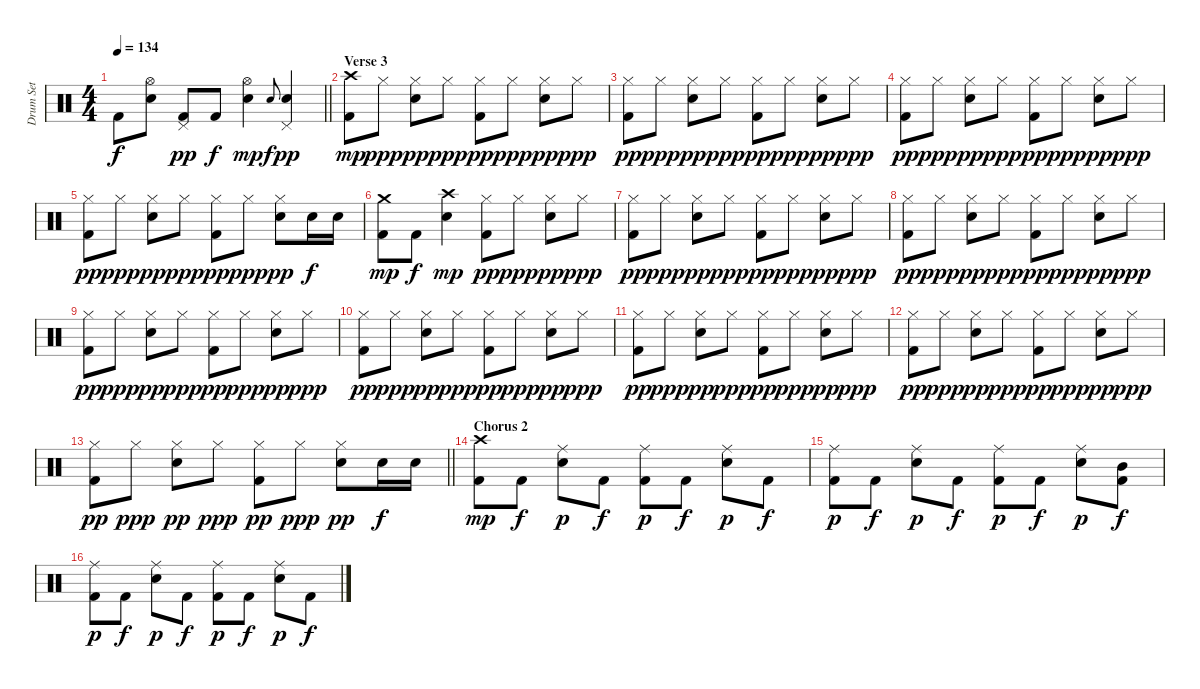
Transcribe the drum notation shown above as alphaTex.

\track ("Drum Set" "Drum Set") {instrument percussion}
\staff {score}
\articulation defaults
\ts (4 4)
\tempo 134
\clef neutral
\barLineRight lightlight
\ks c "Kick (hit) 2".8{dy f}
("Electric Snare (hit)" "Hi-Hat (open)").8 ("Kick (hit) 2" "Pedal Hi-Hat (hit)").8{dy pp} "Kick (hit) 2".8{dy f} ("Electric Snare (hit)" "Hi-Hat (open)").4{dy mp} "Electric Snare (hit)".8{gr onbeat dy f} ("Electric Snare (hit)" "Pedal Hi-Hat (hit)").4{dy pp} |
\section ("" "Verse 3")
("Crash high (hit)" "Kick (hit) 2").8{dy mp} "Hi-Hat (closed)".8{dy ppp} ("Hi-Hat (closed)" "Electric Snare (hit)").8{dy pp} "Hi-Hat (closed)".8{dy ppp} ("Hi-Hat (closed)" "Kick (hit) 2").8{dy pp} "Hi-Hat (closed)".8{dy ppp} ("Hi-Hat (closed)" "Electric Snare (hit)").8{dy pp} "Hi-Hat (closed)".8{dy ppp} |
("Hi-Hat (closed)" "Kick (hit) 2").8{dy pp} "Hi-Hat (closed)".8{dy ppp} ("Hi-Hat (closed)" "Electric Snare (hit)").8{dy pp} "Hi-Hat (closed)".8{dy ppp} ("Hi-Hat (closed)" "Kick (hit) 2").8{dy pp} "Hi-Hat (closed)".8{dy ppp} ("Hi-Hat (closed)" "Electric Snare (hit)").8{dy pp} "Hi-Hat (closed)".8{dy ppp} |
("Hi-Hat (closed)" "Kick (hit) 2").8{dy pp} "Hi-Hat (closed)".8{dy ppp} ("Hi-Hat (closed)" "Electric Snare (hit)").8{dy pp} "Hi-Hat (closed)".8{dy ppp} ("Hi-Hat (closed)" "Kick (hit) 2").8{dy pp} "Hi-Hat (closed)".8{dy ppp} ("Hi-Hat (closed)" "Electric Snare (hit)").8{dy pp} "Hi-Hat (closed)".8{dy ppp} |
("Hi-Hat (closed)" "Kick (hit) 2").8{dy pp} "Hi-Hat (closed)".8{dy ppp} ("Hi-Hat (closed)" "Electric Snare (hit)").8{dy pp} "Hi-Hat (closed)".8{dy ppp} ("Hi-Hat (closed)" "Kick (hit) 2").8{dy pp} "Hi-Hat (closed)".8{dy ppp} ("Hi-Hat (closed)" "Electric Snare (hit)").8{dy pp} "Electric Snare (hit)".16{dy f} "Electric Snare (hit)".16 |
("Crash medium (hit)" "Kick (hit) 2").8{dy mp} "Kick (hit) 2".8{dy f} ("Crash high (hit)" "Electric Snare (hit)").4{dy mp} ("Hi-Hat (closed)" "Kick (hit) 2").8{dy pp} "Hi-Hat (closed)".8{dy ppp} ("Hi-Hat (closed)" "Electric Snare (hit)").8{dy pp} "Hi-Hat (closed)".8{dy ppp} |
("Hi-Hat (closed)" "Kick (hit) 2").8{dy pp} "Hi-Hat (closed)".8{dy ppp} ("Hi-Hat (closed)" "Electric Snare (hit)").8{dy pp} "Hi-Hat (closed)".8{dy ppp} ("Hi-Hat (closed)" "Kick (hit) 2").8{dy pp} "Hi-Hat (closed)".8{dy ppp} ("Hi-Hat (closed)" "Electric Snare (hit)").8{dy pp} "Hi-Hat (closed)".8{dy ppp} |
("Hi-Hat (closed)" "Kick (hit) 2").8{dy pp} "Hi-Hat (closed)".8{dy ppp} ("Hi-Hat (closed)" "Electric Snare (hit)").8{dy pp} "Hi-Hat (closed)".8{dy ppp} ("Hi-Hat (closed)" "Kick (hit) 2").8{dy pp} "Hi-Hat (closed)".8{dy ppp} ("Hi-Hat (closed)" "Electric Snare (hit)").8{dy pp} "Hi-Hat (closed)".8{dy ppp} |
("Hi-Hat (closed)" "Kick (hit) 2").8{dy pp} "Hi-Hat (closed)".8{dy ppp} ("Hi-Hat (closed)" "Electric Snare (hit)").8{dy pp} "Hi-Hat (closed)".8{dy ppp} ("Hi-Hat (closed)" "Kick (hit) 2").8{dy pp} "Hi-Hat (closed)".8{dy ppp} ("Hi-Hat (closed)" "Electric Snare (hit)").8{dy pp} "Hi-Hat (closed)".8{dy ppp} |
("Hi-Hat (closed)" "Kick (hit) 2").8{dy pp} "Hi-Hat (closed)".8{dy ppp} ("Hi-Hat (closed)" "Electric Snare (hit)").8{dy pp} "Hi-Hat (closed)".8{dy ppp} ("Hi-Hat (closed)" "Kick (hit) 2").8{dy pp} "Hi-Hat (closed)".8{dy ppp} ("Hi-Hat (closed)" "Electric Snare (hit)").8{dy pp} "Hi-Hat (closed)".8{dy ppp} |
("Hi-Hat (closed)" "Kick (hit) 2").8{dy pp} "Hi-Hat (closed)".8{dy ppp} ("Hi-Hat (closed)" "Electric Snare (hit)").8{dy pp} "Hi-Hat (closed)".8{dy ppp} ("Hi-Hat (closed)" "Kick (hit) 2").8{dy pp} "Hi-Hat (closed)".8{dy ppp} ("Hi-Hat (closed)" "Electric Snare (hit)").8{dy pp} "Hi-Hat (closed)".8{dy ppp} |
("Hi-Hat (closed)" "Kick (hit) 2").8{dy pp} "Hi-Hat (closed)".8{dy ppp} ("Hi-Hat (closed)" "Electric Snare (hit)").8{dy pp} "Hi-Hat (closed)".8{dy ppp} ("Hi-Hat (closed)" "Kick (hit) 2").8{dy pp} "Hi-Hat (closed)".8{dy ppp} ("Hi-Hat (closed)" "Electric Snare (hit)").8{dy pp} "Hi-Hat (closed)".8{dy ppp} |
\barLineRight lightlight
("Hi-Hat (closed)" "Kick (hit) 2").8{dy pp} "Hi-Hat (closed)".8{dy ppp} ("Hi-Hat (closed)" "Electric Snare (hit)").8{dy pp} "Hi-Hat (closed)".8{dy ppp} ("Hi-Hat (closed)" "Kick (hit) 2").8{dy pp} "Hi-Hat (closed)".8{dy ppp} ("Hi-Hat (closed)" "Electric Snare (hit)").8{dy pp} "Electric Snare (hit)".16{dy f} "Electric Snare (hit)".16 |
\section ("" "Chorus 2")
("Crash high (hit)" "Kick (hit) 2").8{dy mp} "Kick (hit) 2".8{dy f} ("Electric Snare (hit)" "Ride (middle)").8{dy p} "Kick (hit) 2".8{dy f} ("Kick (hit) 2" "Ride (middle)").8{dy p} "Kick (hit) 2".8{dy f} ("Electric Snare (hit)" "Ride (middle)").8{dy p} "Kick (hit) 2".8{dy f} |
("Ride (middle)" "Kick (hit) 2").8{dy p} "Kick (hit) 2".8{dy f} ("Electric Snare (hit)" "Ride (middle)").8{dy p} "Kick (hit) 2".8{dy f} ("Kick (hit) 2" "Ride (middle)").8{dy p} "Kick (hit) 2".8{dy f} ("Electric Snare (hit)" "Ride (middle)").8{dy p} ("Kick (hit) 2" "Mid Tom (hit)").8{dy f} |
("Ride (middle)" "Kick (hit) 2").8{dy p} "Kick (hit) 2".8{dy f} ("Electric Snare (hit)" "Ride (middle)").8{dy p} "Kick (hit) 2".8{dy f} ("Kick (hit) 2" "Ride (middle)").8{dy p} "Kick (hit) 2".8{dy f} ("Electric Snare (hit)" "Ride (middle)").8{dy p} "Kick (hit) 2".8{dy f}
